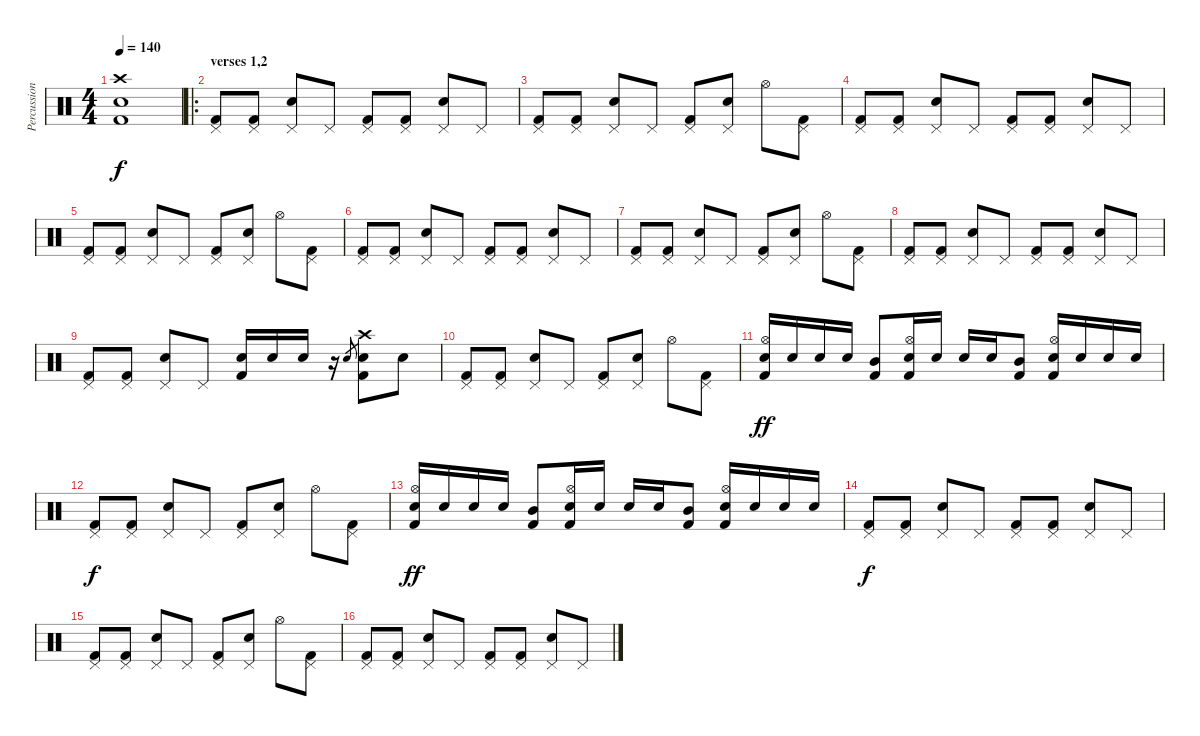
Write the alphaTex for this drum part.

\track ("Percussions" "Percussion") {instrument percussion}
\staff {score}
\articulation defaults
\ts (4 4)
\tempo 140
\clef neutral
\ks c
("Crash high (hit)" "Snare (hit) 2" "Kick (hit) 2").1{dy f} |
\ro
\section ("" "verses 1,2")
("Pedal Hi-Hat (hit)" "Kick (hit) 2").8 ("Pedal Hi-Hat (hit)" "Kick (hit) 2").8 ("Pedal Hi-Hat (hit)" "Snare (hit) 2").8 "Pedal Hi-Hat (hit)".8 ("Pedal Hi-Hat (hit)" "Kick (hit) 2").8 ("Pedal Hi-Hat (hit)" "Kick (hit) 2").8 ("Pedal Hi-Hat (hit)" "Snare (hit) 2").8 "Pedal Hi-Hat (hit)".8 |
("Pedal Hi-Hat (hit)" "Kick (hit) 2").8 ("Pedal Hi-Hat (hit)" "Kick (hit) 2").8 ("Pedal Hi-Hat (hit)" "Snare (hit) 2").8 "Pedal Hi-Hat (hit)".8 ("Pedal Hi-Hat (hit)" "Kick (hit) 2").8 ("Pedal Hi-Hat (hit)" "Snare (hit) 2").8 "Hi-Hat (open)".8 ("Pedal Hi-Hat (hit)" "Kick (hit) 2").8 |
("Pedal Hi-Hat (hit)" "Kick (hit) 2").8 ("Pedal Hi-Hat (hit)" "Kick (hit) 2").8 ("Pedal Hi-Hat (hit)" "Snare (hit) 2").8 "Pedal Hi-Hat (hit)".8 ("Pedal Hi-Hat (hit)" "Kick (hit) 2").8 ("Pedal Hi-Hat (hit)" "Kick (hit) 2").8 ("Pedal Hi-Hat (hit)" "Snare (hit) 2").8 "Pedal Hi-Hat (hit)".8 |
("Pedal Hi-Hat (hit)" "Kick (hit) 2").8 ("Pedal Hi-Hat (hit)" "Kick (hit) 2").8 ("Pedal Hi-Hat (hit)" "Snare (hit) 2").8 "Pedal Hi-Hat (hit)".8 ("Pedal Hi-Hat (hit)" "Kick (hit) 2").8 ("Pedal Hi-Hat (hit)" "Snare (hit) 2").8 "Hi-Hat (open)".8 ("Pedal Hi-Hat (hit)" "Kick (hit) 2").8 |
("Pedal Hi-Hat (hit)" "Kick (hit) 2").8 ("Pedal Hi-Hat (hit)" "Kick (hit) 2").8 ("Pedal Hi-Hat (hit)" "Snare (hit) 2").8 "Pedal Hi-Hat (hit)".8 ("Pedal Hi-Hat (hit)" "Kick (hit) 2").8 ("Pedal Hi-Hat (hit)" "Kick (hit) 2").8 ("Pedal Hi-Hat (hit)" "Snare (hit) 2").8 "Pedal Hi-Hat (hit)".8 |
("Pedal Hi-Hat (hit)" "Kick (hit) 2").8 ("Pedal Hi-Hat (hit)" "Kick (hit) 2").8 ("Pedal Hi-Hat (hit)" "Snare (hit) 2").8 "Pedal Hi-Hat (hit)".8 ("Pedal Hi-Hat (hit)" "Kick (hit) 2").8 ("Pedal Hi-Hat (hit)" "Snare (hit) 2").8 "Hi-Hat (open)".8 ("Pedal Hi-Hat (hit)" "Kick (hit) 2").8 |
("Pedal Hi-Hat (hit)" "Kick (hit) 2").8 ("Pedal Hi-Hat (hit)" "Kick (hit) 2").8 ("Pedal Hi-Hat (hit)" "Snare (hit) 2").8 "Pedal Hi-Hat (hit)".8 ("Pedal Hi-Hat (hit)" "Kick (hit) 2").8 ("Pedal Hi-Hat (hit)" "Kick (hit) 2").8 ("Pedal Hi-Hat (hit)" "Snare (hit) 2").8 "Pedal Hi-Hat (hit)".8 |
("Pedal Hi-Hat (hit)" "Kick (hit) 2").8 ("Pedal Hi-Hat (hit)" "Kick (hit) 2").8 ("Pedal Hi-Hat (hit)" "Snare (hit) 2").8 "Pedal Hi-Hat (hit)".8 ("Electric Snare (hit)" "Kick (hit) 2").16 "Snare (hit) 2".16 "Electric Snare (hit)".16 r.16 "Snare (hit) 2".8{gr} ("Crash high (hit)" "Electric Snare (hit)" "Kick (hit) 2").8 "Snare (hit) 2".8 |
("Pedal Hi-Hat (hit)" "Kick (hit) 2").8 ("Pedal Hi-Hat (hit)" "Kick (hit) 2").8 ("Pedal Hi-Hat (hit)" "Snare (hit) 2").8 "Pedal Hi-Hat (hit)".8 ("Pedal Hi-Hat (hit)" "Kick (hit) 2").8 ("Pedal Hi-Hat (hit)" "Snare (hit) 2").8 "Hi-Hat (open)".8 ("Pedal Hi-Hat (hit)" "Kick (hit) 2").8 |
("Hi-Hat (open)" "Electric Snare (hit)" "Kick (hit) 2").16{dy ff} "Electric Snare (hit)".16 "Snare (hit) 2".16 "Snare (hit) 2".16 ("Mid Tom (hit)" "Kick (hit) 2").8 ("Hi-Hat (open)" "Electric Snare (hit)" "Kick (hit) 2").16 "Electric Snare (hit)".16 "Snare (hit) 2".16 "Snare (hit) 2".16 ("Mid Tom (hit)" "Kick (hit) 2").8 ("Hi-Hat (open)" "Electric Snare (hit)" "Kick (hit) 2").16 "Electric Snare (hit)".16 "Snare (hit) 2".16 "Snare (hit) 2".16 |
("Pedal Hi-Hat (hit)" "Kick (hit) 2").8{dy f} ("Pedal Hi-Hat (hit)" "Kick (hit) 2").8 ("Pedal Hi-Hat (hit)" "Snare (hit) 2").8 "Pedal Hi-Hat (hit)".8 ("Pedal Hi-Hat (hit)" "Kick (hit) 2").8 ("Pedal Hi-Hat (hit)" "Snare (hit) 2").8 "Hi-Hat (open)".8 ("Pedal Hi-Hat (hit)" "Kick (hit) 2").8 |
("Hi-Hat (open)" "Electric Snare (hit)" "Kick (hit) 2").16{dy ff} "Electric Snare (hit)".16 "Snare (hit) 2".16 "Snare (hit) 2".16 ("Mid Tom (hit)" "Kick (hit) 2").8 ("Hi-Hat (open)" "Electric Snare (hit)" "Kick (hit) 2").16 "Electric Snare (hit)".16 "Snare (hit) 2".16 "Snare (hit) 2".16 ("Mid Tom (hit)" "Kick (hit) 2").8 ("Hi-Hat (open)" "Electric Snare (hit)" "Kick (hit) 2").16 "Electric Snare (hit)".16 "Snare (hit) 2".16 "Snare (hit) 2".16 |
("Pedal Hi-Hat (hit)" "Kick (hit) 2").8{dy f} ("Pedal Hi-Hat (hit)" "Kick (hit) 2").8 ("Pedal Hi-Hat (hit)" "Snare (hit) 2").8 "Pedal Hi-Hat (hit)".8 ("Pedal Hi-Hat (hit)" "Kick (hit) 2").8 ("Pedal Hi-Hat (hit)" "Kick (hit) 2").8 ("Pedal Hi-Hat (hit)" "Snare (hit) 2").8 "Pedal Hi-Hat (hit)".8 |
("Pedal Hi-Hat (hit)" "Kick (hit) 2").8 ("Pedal Hi-Hat (hit)" "Kick (hit) 2").8 ("Pedal Hi-Hat (hit)" "Snare (hit) 2").8 "Pedal Hi-Hat (hit)".8 ("Pedal Hi-Hat (hit)" "Kick (hit) 2").8 ("Pedal Hi-Hat (hit)" "Snare (hit) 2").8 "Hi-Hat (open)".8 ("Pedal Hi-Hat (hit)" "Kick (hit) 2").8 |
("Pedal Hi-Hat (hit)" "Kick (hit) 2").8 ("Pedal Hi-Hat (hit)" "Kick (hit) 2").8 ("Pedal Hi-Hat (hit)" "Snare (hit) 2").8 "Pedal Hi-Hat (hit)".8 ("Pedal Hi-Hat (hit)" "Kick (hit) 2").8 ("Pedal Hi-Hat (hit)" "Kick (hit) 2").8 ("Pedal Hi-Hat (hit)" "Snare (hit) 2").8 "Pedal Hi-Hat (hit)".8
